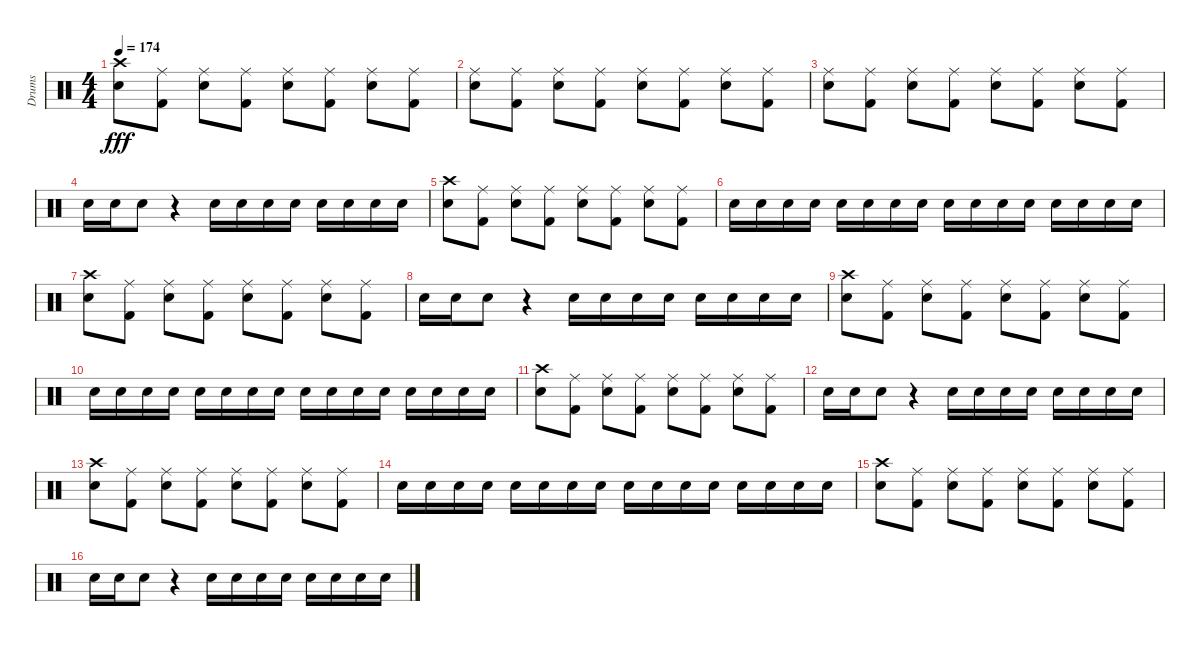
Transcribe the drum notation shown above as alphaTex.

\track ("Drums" "Drums") {instrument percussion}
\staff {score}
\articulation defaults
\ts (4 4)
\tempo 174
\clef neutral
\ks c
("Crash high (hit)" "Electric Snare (hit)").8{dy fff} ("Ride (middle)" "Kick (hit) 2").8 ("Ride (middle)" "Electric Snare (hit)").8 ("Ride (middle)" "Kick (hit) 2").8 ("Ride (middle)" "Electric Snare (hit)").8 ("Ride (middle)" "Kick (hit) 2").8 ("Ride (middle)" "Electric Snare (hit)").8 ("Ride (middle)" "Kick (hit) 2").8 |
("Ride (middle)" "Electric Snare (hit)").8 ("Ride (middle)" "Kick (hit) 2").8 ("Ride (middle)" "Electric Snare (hit)").8 ("Ride (middle)" "Kick (hit) 2").8 ("Ride (middle)" "Electric Snare (hit)").8 ("Ride (middle)" "Kick (hit) 2").8 ("Ride (middle)" "Electric Snare (hit)").8 ("Ride (middle)" "Kick (hit) 2").8 |
("Ride (middle)" "Electric Snare (hit)").8 ("Ride (middle)" "Kick (hit) 2").8 ("Ride (middle)" "Electric Snare (hit)").8 ("Ride (middle)" "Kick (hit) 2").8 ("Ride (middle)" "Electric Snare (hit)").8 ("Ride (middle)" "Kick (hit) 2").8 ("Ride (middle)" "Electric Snare (hit)").8 ("Ride (middle)" "Kick (hit) 2").8 |
"Electric Snare (hit)".16 "Electric Snare (hit)".16 "Electric Snare (hit)".8 r.4 "Electric Snare (hit)".16 "Electric Snare (hit)".16 "Electric Snare (hit)".16 "Electric Snare (hit)".16 "Electric Snare (hit)".16 "Electric Snare (hit)".16 "Electric Snare (hit)".16 "Electric Snare (hit)".16 |
("Crash high (hit)" "Electric Snare (hit)").8 ("Ride (middle)" "Kick (hit) 2").8 ("Ride (middle)" "Electric Snare (hit)").8 ("Ride (middle)" "Kick (hit) 2").8 ("Ride (middle)" "Electric Snare (hit)").8 ("Ride (middle)" "Kick (hit) 2").8 ("Ride (middle)" "Electric Snare (hit)").8 ("Ride (middle)" "Kick (hit) 2").8 |
"Electric Snare (hit)".16 "Electric Snare (hit)".16 "Electric Snare (hit)".16 "Electric Snare (hit)".16 "Electric Snare (hit)".16 "Electric Snare (hit)".16 "Electric Snare (hit)".16 "Electric Snare (hit)".16 "Electric Snare (hit)".16 "Electric Snare (hit)".16 "Electric Snare (hit)".16 "Electric Snare (hit)".16 "Electric Snare (hit)".16 "Electric Snare (hit)".16 "Electric Snare (hit)".16 "Electric Snare (hit)".16 |
("Crash high (hit)" "Electric Snare (hit)").8 ("Ride (middle)" "Kick (hit) 2").8 ("Ride (middle)" "Electric Snare (hit)").8 ("Ride (middle)" "Kick (hit) 2").8 ("Ride (middle)" "Electric Snare (hit)").8 ("Ride (middle)" "Kick (hit) 2").8 ("Ride (middle)" "Electric Snare (hit)").8 ("Ride (middle)" "Kick (hit) 2").8 |
"Electric Snare (hit)".16 "Electric Snare (hit)".16 "Electric Snare (hit)".8 r.4 "Electric Snare (hit)".16 "Electric Snare (hit)".16 "Electric Snare (hit)".16 "Electric Snare (hit)".16 "Electric Snare (hit)".16 "Electric Snare (hit)".16 "Electric Snare (hit)".16 "Electric Snare (hit)".16 |
("Crash high (hit)" "Electric Snare (hit)").8 ("Ride (middle)" "Kick (hit) 2").8 ("Ride (middle)" "Electric Snare (hit)").8 ("Ride (middle)" "Kick (hit) 2").8 ("Ride (middle)" "Electric Snare (hit)").8 ("Ride (middle)" "Kick (hit) 2").8 ("Ride (middle)" "Electric Snare (hit)").8 ("Ride (middle)" "Kick (hit) 2").8 |
"Electric Snare (hit)".16 "Electric Snare (hit)".16 "Electric Snare (hit)".16 "Electric Snare (hit)".16 "Electric Snare (hit)".16 "Electric Snare (hit)".16 "Electric Snare (hit)".16 "Electric Snare (hit)".16 "Electric Snare (hit)".16 "Electric Snare (hit)".16 "Electric Snare (hit)".16 "Electric Snare (hit)".16 "Electric Snare (hit)".16 "Electric Snare (hit)".16 "Electric Snare (hit)".16 "Electric Snare (hit)".16 |
("Crash high (hit)" "Electric Snare (hit)").8 ("Ride (middle)" "Kick (hit) 2").8 ("Ride (middle)" "Electric Snare (hit)").8 ("Ride (middle)" "Kick (hit) 2").8 ("Ride (middle)" "Electric Snare (hit)").8 ("Ride (middle)" "Kick (hit) 2").8 ("Ride (middle)" "Electric Snare (hit)").8 ("Ride (middle)" "Kick (hit) 2").8 |
"Electric Snare (hit)".16 "Electric Snare (hit)".16 "Electric Snare (hit)".8 r.4 "Electric Snare (hit)".16 "Electric Snare (hit)".16 "Electric Snare (hit)".16 "Electric Snare (hit)".16 "Electric Snare (hit)".16 "Electric Snare (hit)".16 "Electric Snare (hit)".16 "Electric Snare (hit)".16 |
("Crash high (hit)" "Electric Snare (hit)").8 ("Ride (middle)" "Kick (hit) 2").8 ("Ride (middle)" "Electric Snare (hit)").8 ("Ride (middle)" "Kick (hit) 2").8 ("Ride (middle)" "Electric Snare (hit)").8 ("Ride (middle)" "Kick (hit) 2").8 ("Ride (middle)" "Electric Snare (hit)").8 ("Ride (middle)" "Kick (hit) 2").8 |
"Electric Snare (hit)".16 "Electric Snare (hit)".16 "Electric Snare (hit)".16 "Electric Snare (hit)".16 "Electric Snare (hit)".16 "Electric Snare (hit)".16 "Electric Snare (hit)".16 "Electric Snare (hit)".16 "Electric Snare (hit)".16 "Electric Snare (hit)".16 "Electric Snare (hit)".16 "Electric Snare (hit)".16 "Electric Snare (hit)".16 "Electric Snare (hit)".16 "Electric Snare (hit)".16 "Electric Snare (hit)".16 |
("Crash high (hit)" "Electric Snare (hit)").8 ("Ride (middle)" "Kick (hit) 2").8 ("Ride (middle)" "Electric Snare (hit)").8 ("Ride (middle)" "Kick (hit) 2").8 ("Ride (middle)" "Electric Snare (hit)").8 ("Ride (middle)" "Kick (hit) 2").8 ("Ride (middle)" "Electric Snare (hit)").8 ("Ride (middle)" "Kick (hit) 2").8 |
"Electric Snare (hit)".16 "Electric Snare (hit)".16 "Electric Snare (hit)".8 r.4 "Electric Snare (hit)".16 "Electric Snare (hit)".16 "Electric Snare (hit)".16 "Electric Snare (hit)".16 "Electric Snare (hit)".16 "Electric Snare (hit)".16 "Electric Snare (hit)".16 "Electric Snare (hit)".16
